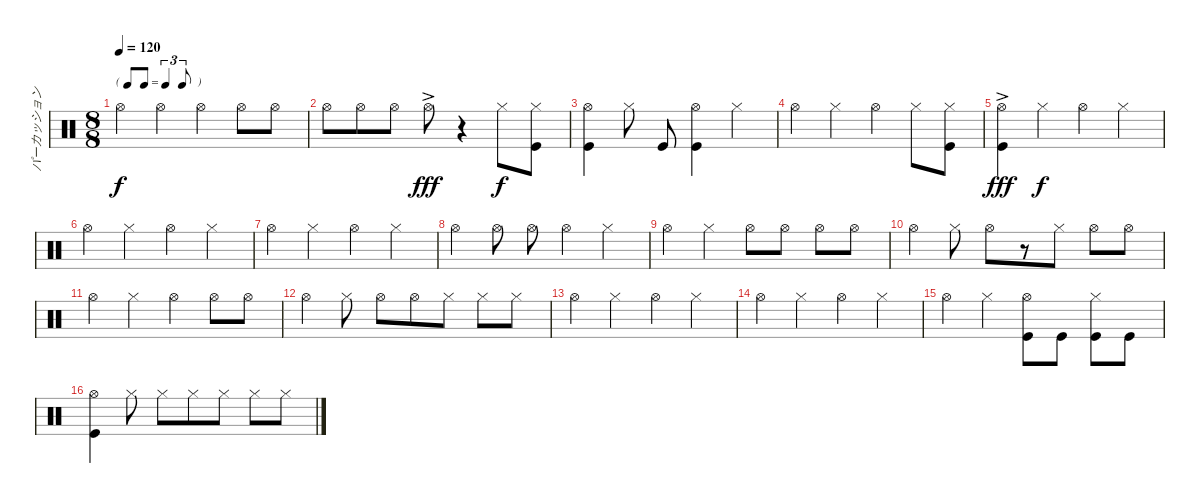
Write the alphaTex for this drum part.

\track ("パーカッション" "パーカッション") {instrument percussion}
\staff {score}
\articulation defaults
\ts (8 8)
\tf triplet8th
\tempo 120
\clef neutral
\ks c "Hi-Hat (open)".4{dy f} "Hi-Hat (open)".4 "Hi-Hat (open)".4 "Hi-Hat (open)".8 "Hi-Hat (open)".8
|
"Hi-Hat (open)".8 "Hi-Hat (open)".8 "Hi-Hat (open)".8 "Hi-Hat (open)"{ac}.8{dy fff} r.4 "Hi-Hat (closed)".8{dy f} ("Hi-Hat (closed)" "Kick (hit)").8 |
("Hi-Hat (open)" "Kick (hit)").4 "Hi-Hat (closed)".8 "Kick (hit)".8 ("Hi-Hat (open)" "Kick (hit)").4 "Hi-Hat (closed)".4 |
"Hi-Hat (open)".4 "Hi-Hat (closed)".4 "Hi-Hat (open)".4 "Hi-Hat (closed)".8 ("Hi-Hat (closed)" "Kick (hit)").8 |
("Hi-Hat (open)"{ac} "Kick (hit)").4{dy fff} "Hi-Hat (closed)".4{dy f} "Hi-Hat (open)".4 "Hi-Hat (closed)".4 |
"Hi-Hat (open)".4 "Hi-Hat (closed)".4 "Hi-Hat (open)".4 "Hi-Hat (closed)".4 |
"Hi-Hat (open)".4 "Hi-Hat (closed)".4 "Hi-Hat (open)".4 "Hi-Hat (closed)".4 |
"Hi-Hat (open)".4 "Hi-Hat (open)".8 "Hi-Hat (open)".8 "Hi-Hat (open)".4 "Hi-Hat (closed)".4 |
"Hi-Hat (open)".4 "Hi-Hat (closed)".4 "Hi-Hat (open)".8 "Hi-Hat (open)".8 "Hi-Hat (open)".8 "Hi-Hat (open)".8 |
"Hi-Hat (open)".4 "Hi-Hat (closed)".8 "Hi-Hat (open)".8 r.8 "Hi-Hat (closed)".8 "Hi-Hat (open)".8 "Hi-Hat (open)".8 |
"Hi-Hat (open)".4 "Hi-Hat (closed)".4 "Hi-Hat (open)".4 "Hi-Hat (open)".8 "Hi-Hat (open)".8 |
"Hi-Hat (open)".4 "Hi-Hat (closed)".8 "Hi-Hat (open)".8 "Hi-Hat (open)".8 "Hi-Hat (closed)".8 "Hi-Hat (closed)".8 "Hi-Hat (closed)".8 |
"Hi-Hat (open)".4 "Hi-Hat (closed)".4 "Hi-Hat (open)".4 "Hi-Hat (closed)".4 |
"Hi-Hat (open)".4 "Hi-Hat (closed)".4 "Hi-Hat (open)".4 "Hi-Hat (closed)".4 |
"Hi-Hat (open)".4 "Hi-Hat (closed)".4 ("Hi-Hat (open)" "Kick (hit)").8 "Kick (hit)".8 ("Hi-Hat (closed)" "Kick (hit)").8 "Kick (hit)".8 |
("Hi-Hat (open)" "Kick (hit)").4 "Hi-Hat (closed)".8 "Hi-Hat (closed)".8 "Hi-Hat (closed)".8 "Hi-Hat (closed)".8 "Hi-Hat (closed)".8 "Hi-Hat (closed)".8
